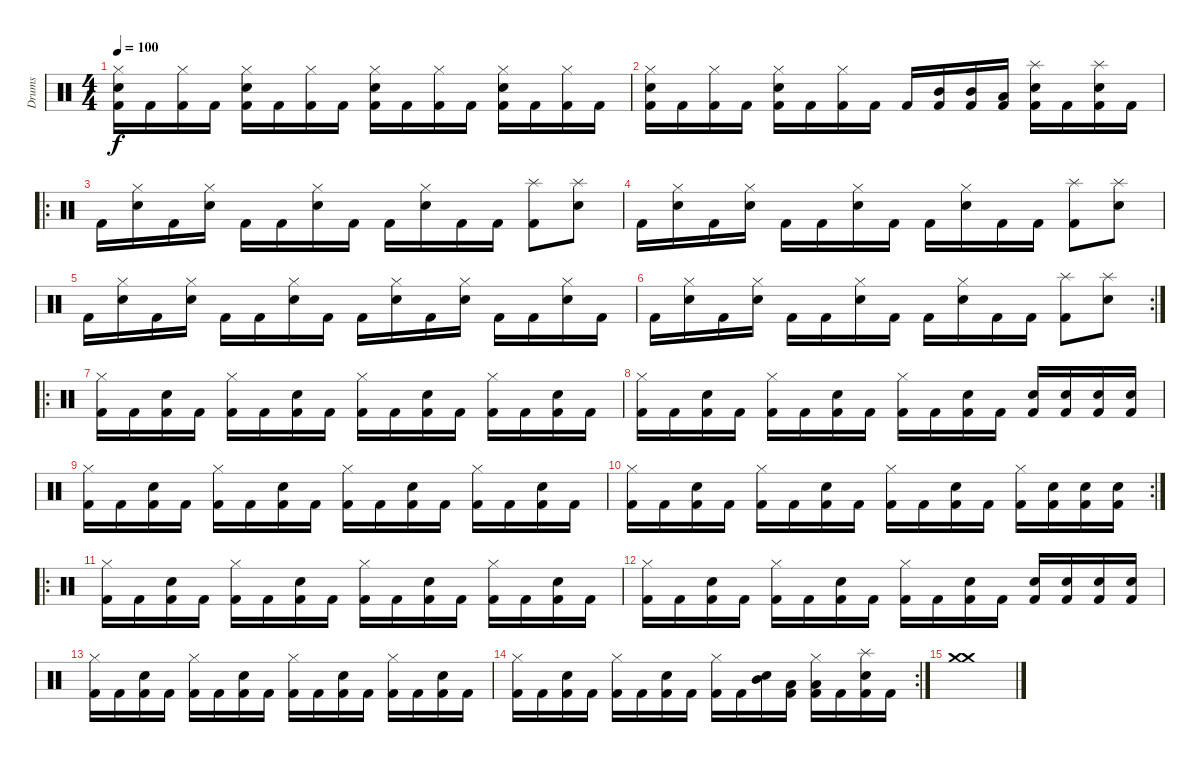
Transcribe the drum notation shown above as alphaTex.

\track ("Drums" "Drums") {instrument percussion}
\staff {score}
\articulation defaults
\ts (4 4)
\tempo 100
\clef neutral
\ks c
("Kick (hit) 2" "Hi-Hat (closed)" "Snare (hit) 2").16{dy f} "Kick (hit) 2".16 ("Kick (hit) 2" "Hi-Hat (closed)").16 "Kick (hit) 2".16 ("Kick (hit) 2" "Hi-Hat (closed)" "Snare (hit) 2").16 "Kick (hit) 2".16 ("Kick (hit) 2" "Hi-Hat (closed)").16 "Kick (hit) 2".16 ("Kick (hit) 2" "Hi-Hat (closed)" "Snare (hit) 2").16 "Kick (hit) 2".16 ("Kick (hit) 2" "Hi-Hat (closed)").16 "Kick (hit) 2".16 ("Kick (hit) 2" "Hi-Hat (closed)" "Snare (hit) 2").16 "Kick (hit) 2".16 ("Kick (hit) 2" "Hi-Hat (closed)").16 "Kick (hit) 2".16 |
("Kick (hit) 2" "Hi-Hat (closed)" "Snare (hit) 2").16 "Kick (hit) 2".16 ("Kick (hit) 2" "Hi-Hat (closed)").16 "Kick (hit) 2".16 ("Kick (hit) 2" "Hi-Hat (closed)" "Snare (hit) 2").16 "Kick (hit) 2".16 ("Kick (hit) 2" "Hi-Hat (closed)").16 "Kick (hit) 2".16 "Kick (hit) 2".16 ("Kick (hit) 2" "Mid Tom (hit)").16 ("Kick (hit) 2" "Mid Tom (hit)").16 ("Kick (hit) 2" "Low Tom (hit)").16 ("Kick (hit) 2" "Splash (hit)" "Snare (hit) 2").16 "Kick (hit) 2".16 ("Kick (hit) 2" "Splash (hit)" "Snare (hit) 2").16 "Kick (hit) 2".16 |
\ro "Kick (hit) 2".16
("Snare (hit) 2" "Hi-Hat (closed)").16 "Kick (hit) 2".16 ("Snare (hit) 2" "Hi-Hat (closed)").16 "Kick (hit) 2".16 "Kick (hit) 2".16 ("Snare (hit) 2" "Hi-Hat (closed)").16 "Kick (hit) 2".16 "Kick (hit) 2".16 ("Snare (hit) 2" "Hi-Hat (closed)").16 "Kick (hit) 2".16 "Kick (hit) 2".16 ("Kick (hit) 2" "Splash (hit)").8 ("Splash (hit)" "Snare (hit) 2").8 |
"Kick (hit) 2".16 ("Snare (hit) 2" "Hi-Hat (closed)").16 "Kick (hit) 2".16 ("Snare (hit) 2" "Hi-Hat (closed)").16 "Kick (hit) 2".16 "Kick (hit) 2".16 ("Snare (hit) 2" "Hi-Hat (closed)").16 "Kick (hit) 2".16 "Kick (hit) 2".16 ("Snare (hit) 2" "Hi-Hat (closed)").16 "Kick (hit) 2".16 "Kick (hit) 2".16 ("Kick (hit) 2" "Splash (hit)").8 ("Splash (hit)" "Snare (hit) 2").8 |
"Kick (hit) 2".16 ("Snare (hit) 2" "Hi-Hat (closed)").16 "Kick (hit) 2".16 ("Snare (hit) 2" "Hi-Hat (closed)").16 "Kick (hit) 2".16 "Kick (hit) 2".16 ("Snare (hit) 2" "Hi-Hat (closed)").16 "Kick (hit) 2".16 "Kick (hit) 2".16 ("Snare (hit) 2" "Hi-Hat (closed)").16 "Kick (hit) 2".16 ("Snare (hit) 2" "Hi-Hat (closed)").16 "Kick (hit) 2".16 "Kick (hit) 2".16 ("Snare (hit) 2" "Hi-Hat (closed)").16 "Kick (hit) 2".16 |
\rc 2 "Kick (hit) 2".16
("Snare (hit) 2" "Hi-Hat (closed)").16 "Kick (hit) 2".16 ("Snare (hit) 2" "Hi-Hat (closed)").16 "Kick (hit) 2".16 "Kick (hit) 2".16 ("Snare (hit) 2" "Hi-Hat (closed)").16 "Kick (hit) 2".16 "Kick (hit) 2".16 ("Snare (hit) 2" "Hi-Hat (closed)").16 "Kick (hit) 2".16 "Kick (hit) 2".16 ("Kick (hit) 2" "Splash (hit)").8 ("Splash (hit)" "Snare (hit) 2").8 |
\ro
("Kick (hit) 2" "Hi-Hat (closed)").16 "Kick (hit) 2".16 ("Kick (hit) 2" "Snare (hit) 2").16 "Kick (hit) 2".16 ("Kick (hit) 2" "Hi-Hat (closed)").16 "Kick (hit) 2".16 ("Kick (hit) 2" "Snare (hit) 2").16 "Kick (hit) 2".16 ("Kick (hit) 2" "Hi-Hat (closed)").16 "Kick (hit) 2".16 ("Kick (hit) 2" "Snare (hit) 2").16 "Kick (hit) 2".16 ("Kick (hit) 2" "Hi-Hat (closed)").16 "Kick (hit) 2".16 ("Kick (hit) 2" "Snare (hit) 2").16 "Kick (hit) 2".16 |
("Kick (hit) 2" "Hi-Hat (closed)").16 "Kick (hit) 2".16 ("Kick (hit) 2" "Snare (hit) 2").16 "Kick (hit) 2".16 ("Kick (hit) 2" "Hi-Hat (closed)").16 "Kick (hit) 2".16 ("Kick (hit) 2" "Snare (hit) 2").16 "Kick (hit) 2".16 ("Kick (hit) 2" "Hi-Hat (closed)").16 "Kick (hit) 2".16 ("Kick (hit) 2" "Snare (hit) 2").16 "Kick (hit) 2".16 ("Kick (hit) 2" "Snare (hit) 2").16 ("Kick (hit) 2" "Snare (hit) 2").16 ("Kick (hit) 2" "Snare (hit) 2").16 ("Kick (hit) 2" "Snare (hit) 2").16 |
("Kick (hit) 2" "Hi-Hat (closed)").16 "Kick (hit) 2".16 ("Kick (hit) 2" "Snare (hit) 2").16 "Kick (hit) 2".16 ("Kick (hit) 2" "Hi-Hat (closed)").16 "Kick (hit) 2".16 ("Kick (hit) 2" "Snare (hit) 2").16 "Kick (hit) 2".16 ("Kick (hit) 2" "Hi-Hat (closed)").16 "Kick (hit) 2".16 ("Kick (hit) 2" "Snare (hit) 2").16 "Kick (hit) 2".16 ("Kick (hit) 2" "Hi-Hat (closed)").16 "Kick (hit) 2".16 ("Kick (hit) 2" "Snare (hit) 2").16 "Kick (hit) 2".16 |
\rc 2
("Kick (hit) 2" "Hi-Hat (closed)").16 "Kick (hit) 2".16 ("Kick (hit) 2" "Snare (hit) 2").16 "Kick (hit) 2".16 ("Kick (hit) 2" "Hi-Hat (closed)").16 "Kick (hit) 2".16 ("Kick (hit) 2" "Snare (hit) 2").16 "Kick (hit) 2".16 ("Kick (hit) 2" "Hi-Hat (closed)").16 "Kick (hit) 2".16 ("Kick (hit) 2" "Snare (hit) 2").16 "Kick (hit) 2".16 ("Kick (hit) 2" "Hi-Hat (closed)").16 ("Kick (hit) 2" "Snare (hit) 2").16 ("Kick (hit) 2" "Snare (hit) 2").16 ("Kick (hit) 2" "Snare (hit) 2").16 |
\ro
("Kick (hit) 2" "Hi-Hat (closed)").16 "Kick (hit) 2".16 ("Kick (hit) 2" "Snare (hit) 2").16 "Kick (hit) 2".16 ("Kick (hit) 2" "Hi-Hat (closed)").16 "Kick (hit) 2".16 ("Kick (hit) 2" "Snare (hit) 2").16 "Kick (hit) 2".16 ("Kick (hit) 2" "Hi-Hat (closed)").16 "Kick (hit) 2".16 ("Kick (hit) 2" "Snare (hit) 2").16 "Kick (hit) 2".16 ("Kick (hit) 2" "Hi-Hat (closed)").16 "Kick (hit) 2".16 ("Kick (hit) 2" "Snare (hit) 2").16 "Kick (hit) 2".16 |
("Kick (hit) 2" "Hi-Hat (closed)").16 "Kick (hit) 2".16 ("Kick (hit) 2" "Snare (hit) 2").16 "Kick (hit) 2".16 ("Kick (hit) 2" "Hi-Hat (closed)").16 "Kick (hit) 2".16 ("Kick (hit) 2" "Snare (hit) 2").16 "Kick (hit) 2".16 ("Kick (hit) 2" "Hi-Hat (closed)").16 "Kick (hit) 2".16 ("Kick (hit) 2" "Snare (hit) 2").16 "Kick (hit) 2".16 ("Kick (hit) 2" "Snare (hit) 2").16 ("Kick (hit) 2" "Snare (hit) 2").16 ("Kick (hit) 2" "Snare (hit) 2").16 ("Kick (hit) 2" "Snare (hit) 2").16 |
("Kick (hit) 2" "Hi-Hat (closed)").16 "Kick (hit) 2".16 ("Kick (hit) 2" "Snare (hit) 2").16 "Kick (hit) 2".16 ("Kick (hit) 2" "Hi-Hat (closed)").16 "Kick (hit) 2".16 ("Kick (hit) 2" "Snare (hit) 2").16 "Kick (hit) 2".16 ("Kick (hit) 2" "Hi-Hat (closed)").16 "Kick (hit) 2".16 ("Kick (hit) 2" "Snare (hit) 2").16 "Kick (hit) 2".16 ("Kick (hit) 2" "Hi-Hat (closed)").16 "Kick (hit) 2".16 ("Kick (hit) 2" "Snare (hit) 2").16 "Kick (hit) 2".16 |
\rc 2
("Kick (hit) 2" "Hi-Hat (closed)").16 "Kick (hit) 2".16 ("Kick (hit) 2" "Snare (hit) 2").16 "Kick (hit) 2".16 ("Kick (hit) 2" "Hi-Hat (closed)").16 "Kick (hit) 2".16 ("Kick (hit) 2" "Snare (hit) 2").16 "Kick (hit) 2".16 ("Kick (hit) 2" "Hi-Hat (closed)").16 "Kick (hit) 2".16 ("Snare (hit) 2" "Mid Tom (hit)").16 ("Kick (hit) 2" "Low Tom (hit)").16 ("Kick (hit) 2" "Low Tom (hit)" "Hi-Hat (closed)").16 "Kick (hit) 2".16 ("Kick (hit) 2" "Splash (hit)" "Snare (hit) 2").16 "Kick (hit) 2".16 |
("Crash medium (hit)" "Crash medium (hit)").1
